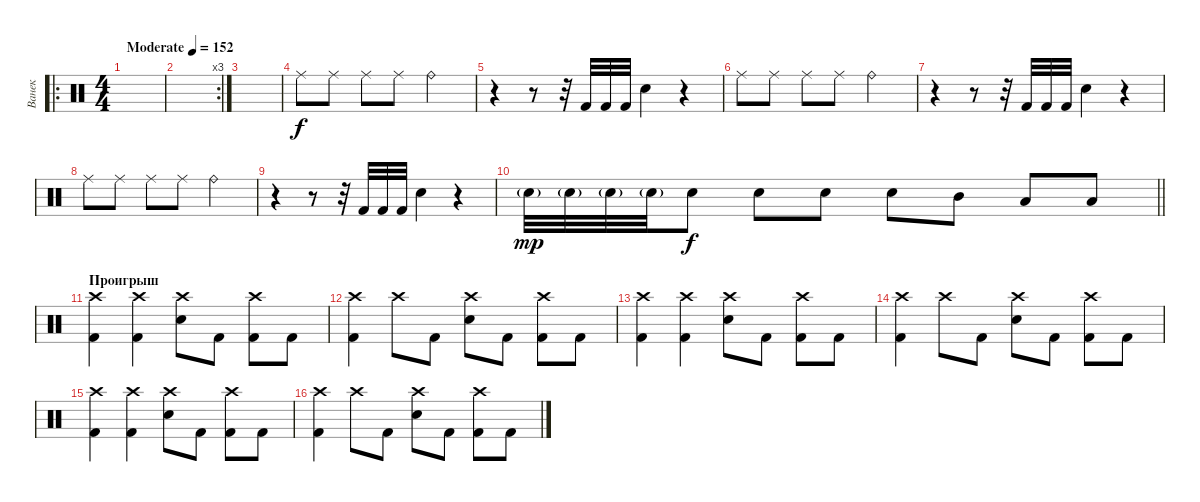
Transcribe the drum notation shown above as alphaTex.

\track ("Ванек" "Ванек") {instrument percussion}
\staff {score}
\articulation defaults
\ro
\ts (4 4)
\tempo (152 "Moderate")
\clef neutral
\ks c
|
\rc 3
|
|
"Ride (middle)".8 "Ride (middle)".8 "Ride (middle)".8 "Ride (middle)".8 "Ride (bell)".2 |
r.4 r.8 r.32 "Kick (hit) 2".32 "Kick (hit) 2".32 "Kick (hit) 2".32 "Electric Snare (hit)".4 r.4 |
"Ride (middle)".8 "Ride (middle)".8 "Ride (middle)".8 "Ride (middle)".8 "Ride (bell)".2 |
r.4 r.8 r.32 "Kick (hit) 2".32 "Kick (hit) 2".32 "Kick (hit) 2".32 "Electric Snare (hit)".4 r.4 |
"Ride (middle)".8 "Ride (middle)".8 "Ride (middle)".8 "Ride (middle)".8 "Ride (bell)".2 |
r.4 r.8 r.32 "Kick (hit) 2".32 "Kick (hit) 2".32 "Kick (hit) 2".32 "Electric Snare (hit)".4 r.4 |
\barLineRight lightlight "Electric Snare (hit)"{g}.32{dy mp} "Electric Snare (hit)"{g}.32 "Electric Snare (hit)"{g}.32 "Electric Snare (hit)"{g}.32 "Electric Snare (hit)".8{dy f} "Electric Snare (hit)".8 "Electric Snare (hit)".8 "Electric Snare (hit)".8 "Mid Tom (hit)".8 "Low Tom (hit)".8 "Low Floor Tom (hit)".8
|
\section ("" "Проигрыш")
("Crash high (hit)" "Kick (hit) 2").4 ("Crash high (hit)" "Kick (hit) 2").4 ("Crash high (hit)" "Electric Snare (hit)").8 "Kick (hit) 2".8 ("Crash high (hit)" "Kick (hit) 2").8 "Kick (hit) 2".8 |
("Crash high (hit)" "Kick (hit) 2").4 "Crash high (hit)".8 "Kick (hit) 2".8 ("Crash high (hit)" "Electric Snare (hit)").8 "Kick (hit) 2".8 ("Crash high (hit)" "Kick (hit) 2").8 "Kick (hit) 2".8 |
("Crash high (hit)" "Kick (hit) 2").4 ("Crash high (hit)" "Kick (hit) 2").4 ("Crash high (hit)" "Electric Snare (hit)").8 "Kick (hit) 2".8 ("Crash high (hit)" "Kick (hit) 2").8 "Kick (hit) 2".8 |
("Crash high (hit)" "Kick (hit) 2").4 "Crash high (hit)".8 "Kick (hit) 2".8 ("Crash high (hit)" "Electric Snare (hit)").8 "Kick (hit) 2".8 ("Crash high (hit)" "Kick (hit) 2").8 "Kick (hit) 2".8 |
("Crash high (hit)" "Kick (hit) 2").4 ("Crash high (hit)" "Kick (hit) 2").4 ("Crash high (hit)" "Electric Snare (hit)").8 "Kick (hit) 2".8 ("Crash high (hit)" "Kick (hit) 2").8 "Kick (hit) 2".8 |
("Crash high (hit)" "Kick (hit) 2").4 "Crash high (hit)".8 "Kick (hit) 2".8 ("Crash high (hit)" "Electric Snare (hit)").8 "Kick (hit) 2".8 ("Crash high (hit)" "Kick (hit) 2").8 "Kick (hit) 2".8
